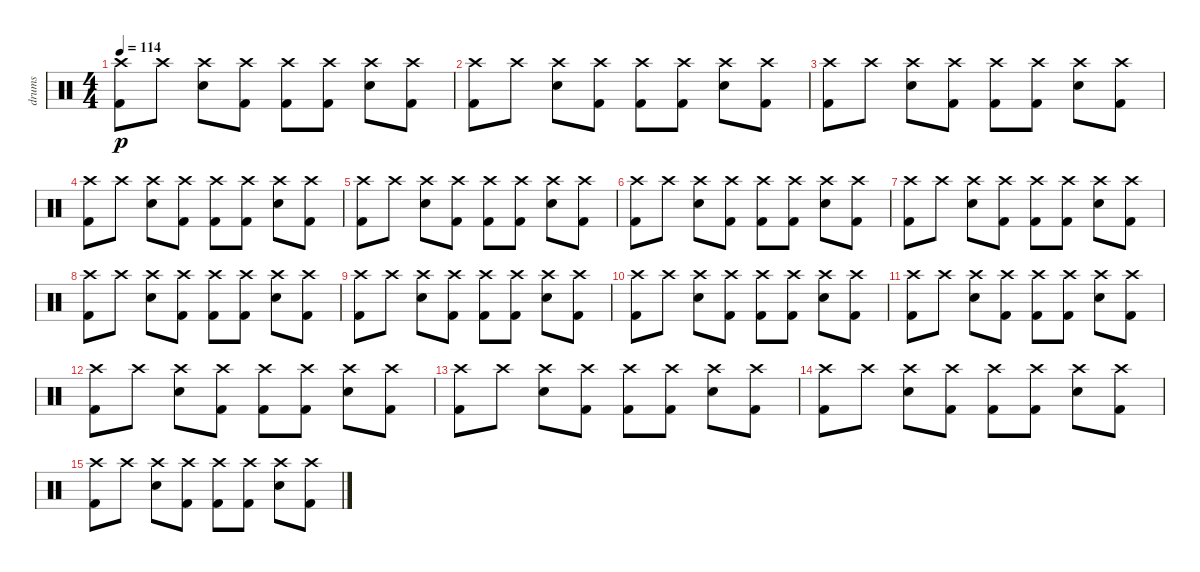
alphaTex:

\track ("drums" "drums") {instrument percussion}
\staff {score}
\articulation defaults
\ts (4 4)
\tempo 114
\clef neutral
\ks c
("Kick (hit) 2" "Crash high (hit)").8{dy p} "Crash high (hit)".8 ("Snare (hit) 2" "Crash high (hit)").8 ("Kick (hit) 2" "Crash high (hit)").8 ("Kick (hit) 2" "Crash high (hit)").8 ("Kick (hit) 2" "Crash high (hit)").8 ("Snare (hit) 2" "Crash high (hit)").8 ("Kick (hit) 2" "Crash high (hit)").8 |
("Kick (hit) 2" "Crash high (hit)").8 "Crash high (hit)".8 ("Snare (hit) 2" "Crash high (hit)").8 ("Kick (hit) 2" "Crash high (hit)").8 ("Kick (hit) 2" "Crash high (hit)").8 ("Kick (hit) 2" "Crash high (hit)").8 ("Snare (hit) 2" "Crash high (hit)").8 ("Kick (hit) 2" "Crash high (hit)").8 |
("Kick (hit) 2" "Crash high (hit)").8 "Crash high (hit)".8 ("Snare (hit) 2" "Crash high (hit)").8 ("Kick (hit) 2" "Crash high (hit)").8 ("Kick (hit) 2" "Crash high (hit)").8 ("Kick (hit) 2" "Crash high (hit)").8 ("Snare (hit) 2" "Crash high (hit)").8 ("Kick (hit) 2" "Crash high (hit)").8 |
("Kick (hit) 2" "Crash high (hit)").8 "Crash high (hit)".8 ("Snare (hit) 2" "Crash high (hit)").8 ("Kick (hit) 2" "Crash high (hit)").8 ("Kick (hit) 2" "Crash high (hit)").8 ("Kick (hit) 2" "Crash high (hit)").8 ("Snare (hit) 2" "Crash high (hit)").8 ("Kick (hit) 2" "Crash high (hit)").8 |
("Kick (hit) 2" "Crash high (hit)").8 "Crash high (hit)".8 ("Snare (hit) 2" "Crash high (hit)").8 ("Kick (hit) 2" "Crash high (hit)").8 ("Kick (hit) 2" "Crash high (hit)").8 ("Kick (hit) 2" "Crash high (hit)").8 ("Snare (hit) 2" "Crash high (hit)").8 ("Kick (hit) 2" "Crash high (hit)").8 |
("Kick (hit) 2" "Crash high (hit)").8 "Crash high (hit)".8 ("Snare (hit) 2" "Crash high (hit)").8 ("Kick (hit) 2" "Crash high (hit)").8 ("Kick (hit) 2" "Crash high (hit)").8 ("Kick (hit) 2" "Crash high (hit)").8 ("Snare (hit) 2" "Crash high (hit)").8 ("Kick (hit) 2" "Crash high (hit)").8 |
("Kick (hit) 2" "Crash high (hit)").8 "Crash high (hit)".8 ("Snare (hit) 2" "Crash high (hit)").8 ("Kick (hit) 2" "Crash high (hit)").8 ("Kick (hit) 2" "Crash high (hit)").8 ("Kick (hit) 2" "Crash high (hit)").8 ("Snare (hit) 2" "Crash high (hit)").8 ("Kick (hit) 2" "Crash high (hit)").8 |
("Kick (hit) 2" "Crash high (hit)").8 "Crash high (hit)".8 ("Snare (hit) 2" "Crash high (hit)").8 ("Kick (hit) 2" "Crash high (hit)").8 ("Kick (hit) 2" "Crash high (hit)").8 ("Kick (hit) 2" "Crash high (hit)").8 ("Snare (hit) 2" "Crash high (hit)").8 ("Kick (hit) 2" "Crash high (hit)").8 |
("Kick (hit) 2" "Crash high (hit)").8 "Crash high (hit)".8 ("Snare (hit) 2" "Crash high (hit)").8 ("Kick (hit) 2" "Crash high (hit)").8 ("Kick (hit) 2" "Crash high (hit)").8 ("Kick (hit) 2" "Crash high (hit)").8 ("Snare (hit) 2" "Crash high (hit)").8 ("Kick (hit) 2" "Crash high (hit)").8 |
("Kick (hit) 2" "Crash high (hit)").8 "Crash high (hit)".8 ("Snare (hit) 2" "Crash high (hit)").8 ("Kick (hit) 2" "Crash high (hit)").8 ("Kick (hit) 2" "Crash high (hit)").8 ("Kick (hit) 2" "Crash high (hit)").8 ("Snare (hit) 2" "Crash high (hit)").8 ("Kick (hit) 2" "Crash high (hit)").8 |
("Kick (hit) 2" "Crash high (hit)").8 "Crash high (hit)".8 ("Snare (hit) 2" "Crash high (hit)").8 ("Kick (hit) 2" "Crash high (hit)").8 ("Kick (hit) 2" "Crash high (hit)").8 ("Kick (hit) 2" "Crash high (hit)").8 ("Snare (hit) 2" "Crash high (hit)").8 ("Kick (hit) 2" "Crash high (hit)").8 |
("Kick (hit) 2" "Crash high (hit)").8 "Crash high (hit)".8 ("Snare (hit) 2" "Crash high (hit)").8 ("Kick (hit) 2" "Crash high (hit)").8 ("Kick (hit) 2" "Crash high (hit)").8 ("Kick (hit) 2" "Crash high (hit)").8 ("Snare (hit) 2" "Crash high (hit)").8 ("Kick (hit) 2" "Crash high (hit)").8 |
("Kick (hit) 2" "Crash high (hit)").8 "Crash high (hit)".8 ("Snare (hit) 2" "Crash high (hit)").8 ("Kick (hit) 2" "Crash high (hit)").8 ("Kick (hit) 2" "Crash high (hit)").8 ("Kick (hit) 2" "Crash high (hit)").8 ("Snare (hit) 2" "Crash high (hit)").8 ("Kick (hit) 2" "Crash high (hit)").8 |
("Kick (hit) 2" "Crash high (hit)").8 "Crash high (hit)".8 ("Snare (hit) 2" "Crash high (hit)").8 ("Kick (hit) 2" "Crash high (hit)").8 ("Kick (hit) 2" "Crash high (hit)").8 ("Kick (hit) 2" "Crash high (hit)").8 ("Snare (hit) 2" "Crash high (hit)").8 ("Kick (hit) 2" "Crash high (hit)").8 |
("Kick (hit) 2" "Crash high (hit)").8 "Crash high (hit)".8 ("Snare (hit) 2" "Crash high (hit)").8 ("Kick (hit) 2" "Crash high (hit)").8 ("Kick (hit) 2" "Crash high (hit)").8 ("Kick (hit) 2" "Crash high (hit)").8 ("Snare (hit) 2" "Crash high (hit)").8 ("Kick (hit) 2" "Crash high (hit)").8
